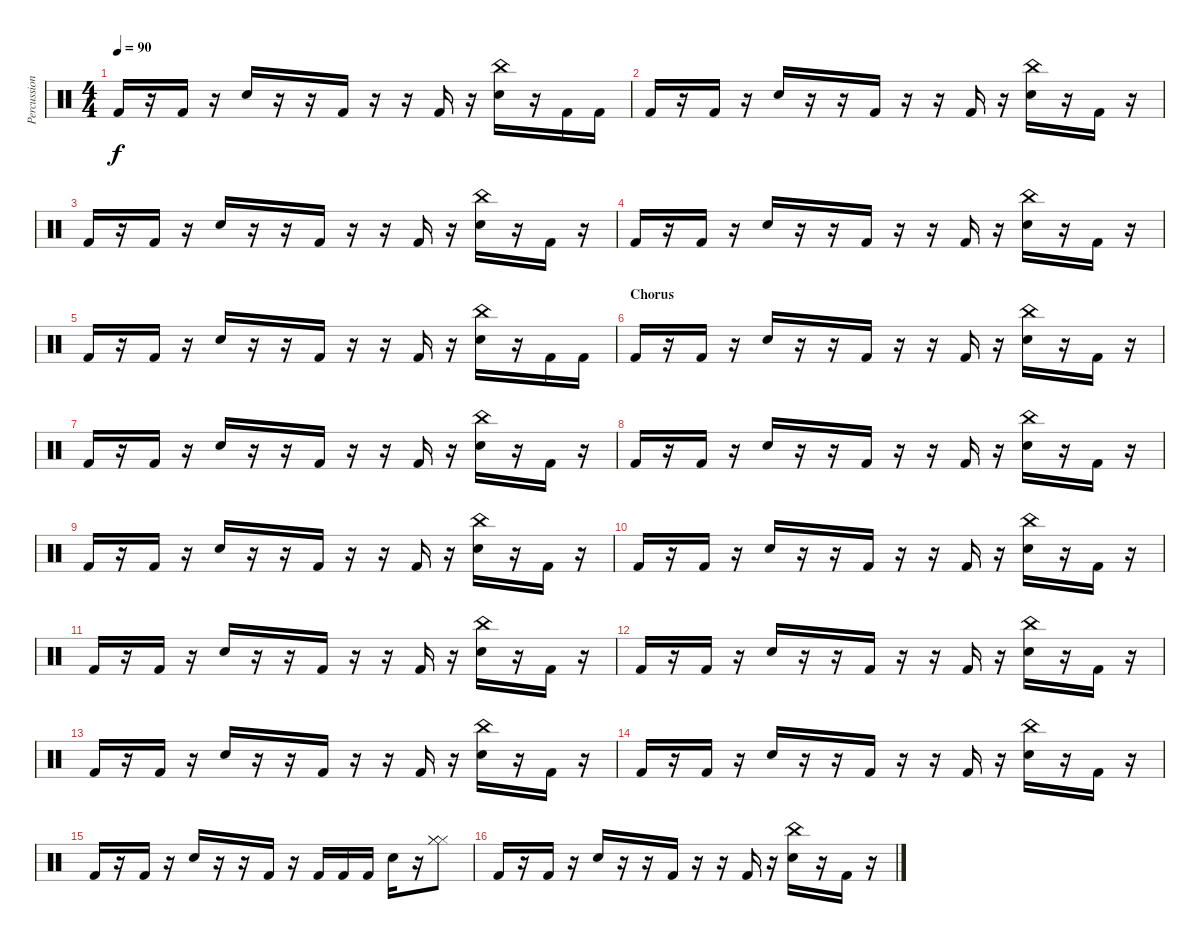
\track ("Percussion" "Percussion") {instrument percussion}
\staff {score}
\articulation defaults
\ts (4 4)
\tempo 90
\clef neutral
\ks c "Kick (hit) 2".16{dy f}
r.16 "Kick (hit) 2".16 r.16 "Snare (hit) 2".16 r.16 r.16 "Kick (hit) 2".16 r.16 r.16 "Kick (hit) 2".16 r.16 ("China (hit)" "Snare (hit) 2").16 r.16 "Kick (hit) 2".16 "Kick (hit) 2".16 |
"Kick (hit) 2".16 r.16 "Kick (hit) 2".16 r.16 "Snare (hit) 2".16 r.16 r.16 "Kick (hit) 2".16 r.16 r.16 "Kick (hit) 2".16 r.16 ("China (hit)" "Snare (hit) 2").16 r.16 "Kick (hit) 2".16 r.16 |
"Kick (hit) 2".16 r.16 "Kick (hit) 2".16 r.16 "Snare (hit) 2".16 r.16 r.16 "Kick (hit) 2".16 r.16 r.16 "Kick (hit) 2".16 r.16 ("China (hit)" "Snare (hit) 2").16 r.16 "Kick (hit) 2".16 r.16 |
"Kick (hit) 2".16 r.16 "Kick (hit) 2".16 r.16 "Snare (hit) 2".16 r.16 r.16 "Kick (hit) 2".16 r.16 r.16 "Kick (hit) 2".16 r.16 ("China (hit)" "Snare (hit) 2").16 r.16 "Kick (hit) 2".16 r.16 |
"Kick (hit) 2".16 r.16 "Kick (hit) 2".16 r.16 "Snare (hit) 2".16 r.16 r.16 "Kick (hit) 2".16 r.16 r.16 "Kick (hit) 2".16 r.16 ("China (hit)" "Snare (hit) 2").16 r.16 "Kick (hit) 2".16 "Kick (hit) 2".16 |
\section ("" "Chorus")
"Kick (hit) 2".16 r.16 "Kick (hit) 2".16 r.16 "Snare (hit) 2".16 r.16 r.16 "Kick (hit) 2".16 r.16 r.16 "Kick (hit) 2".16 r.16 ("China (hit)" "Snare (hit) 2").16 r.16 "Kick (hit) 2".16 r.16 |
"Kick (hit) 2".16 r.16 "Kick (hit) 2".16 r.16 "Snare (hit) 2".16 r.16 r.16 "Kick (hit) 2".16 r.16 r.16 "Kick (hit) 2".16 r.16 ("China (hit)" "Snare (hit) 2").16 r.16 "Kick (hit) 2".16 r.16 |
"Kick (hit) 2".16 r.16 "Kick (hit) 2".16 r.16 "Snare (hit) 2".16 r.16 r.16 "Kick (hit) 2".16 r.16 r.16 "Kick (hit) 2".16 r.16 ("China (hit)" "Snare (hit) 2").16 r.16 "Kick (hit) 2".16 r.16 |
"Kick (hit) 2".16 r.16 "Kick (hit) 2".16 r.16 "Snare (hit) 2".16 r.16 r.16 "Kick (hit) 2".16 r.16 r.16 "Kick (hit) 2".16 r.16 ("China (hit)" "Snare (hit) 2").16 r.16 "Kick (hit) 2".16 r.16 |
"Kick (hit) 2".16 r.16 "Kick (hit) 2".16 r.16 "Snare (hit) 2".16 r.16 r.16 "Kick (hit) 2".16 r.16 r.16 "Kick (hit) 2".16 r.16 ("China (hit)" "Snare (hit) 2").16 r.16 "Kick (hit) 2".16 r.16 |
"Kick (hit) 2".16 r.16 "Kick (hit) 2".16 r.16 "Snare (hit) 2".16 r.16 r.16 "Kick (hit) 2".16 r.16 r.16 "Kick (hit) 2".16 r.16 ("China (hit)" "Snare (hit) 2").16 r.16 "Kick (hit) 2".16 r.16 |
"Kick (hit) 2".16 r.16 "Kick (hit) 2".16 r.16 "Snare (hit) 2".16 r.16 r.16 "Kick (hit) 2".16 r.16 r.16 "Kick (hit) 2".16 r.16 ("China (hit)" "Snare (hit) 2").16 r.16 "Kick (hit) 2".16 r.16 |
"Kick (hit) 2".16 r.16 "Kick (hit) 2".16 r.16 "Snare (hit) 2".16 r.16 r.16 "Kick (hit) 2".16 r.16 r.16 "Kick (hit) 2".16 r.16 ("China (hit)" "Snare (hit) 2").16 r.16 "Kick (hit) 2".16 r.16 |
"Kick (hit) 2".16 r.16 "Kick (hit) 2".16 r.16 "Snare (hit) 2".16 r.16 r.16 "Kick (hit) 2".16 r.16 r.16 "Kick (hit) 2".16 r.16 ("China (hit)" "Snare (hit) 2").16 r.16 "Kick (hit) 2".16 r.16 |
"Kick (hit) 2".16 r.16 "Kick (hit) 2".16 r.16 "Snare (hit) 2".16 r.16 r.16 "Kick (hit) 2".16 r.16 "Kick (hit) 2".16 "Kick (hit) 2".16 "Kick (hit) 2".16 "Snare (hit) 2".16 r.16 ("Hi-Hat (closed)" "Hi-Hat (closed)" "Hi-Hat (closed)").8 |
"Kick (hit) 2".16 r.16 "Kick (hit) 2".16 r.16 "Snare (hit) 2".16 r.16 r.16 "Kick (hit) 2".16 r.16 r.16 "Kick (hit) 2".16 r.16 ("China (hit)" "Snare (hit) 2").16 r.16 "Kick (hit) 2".16 r.16
